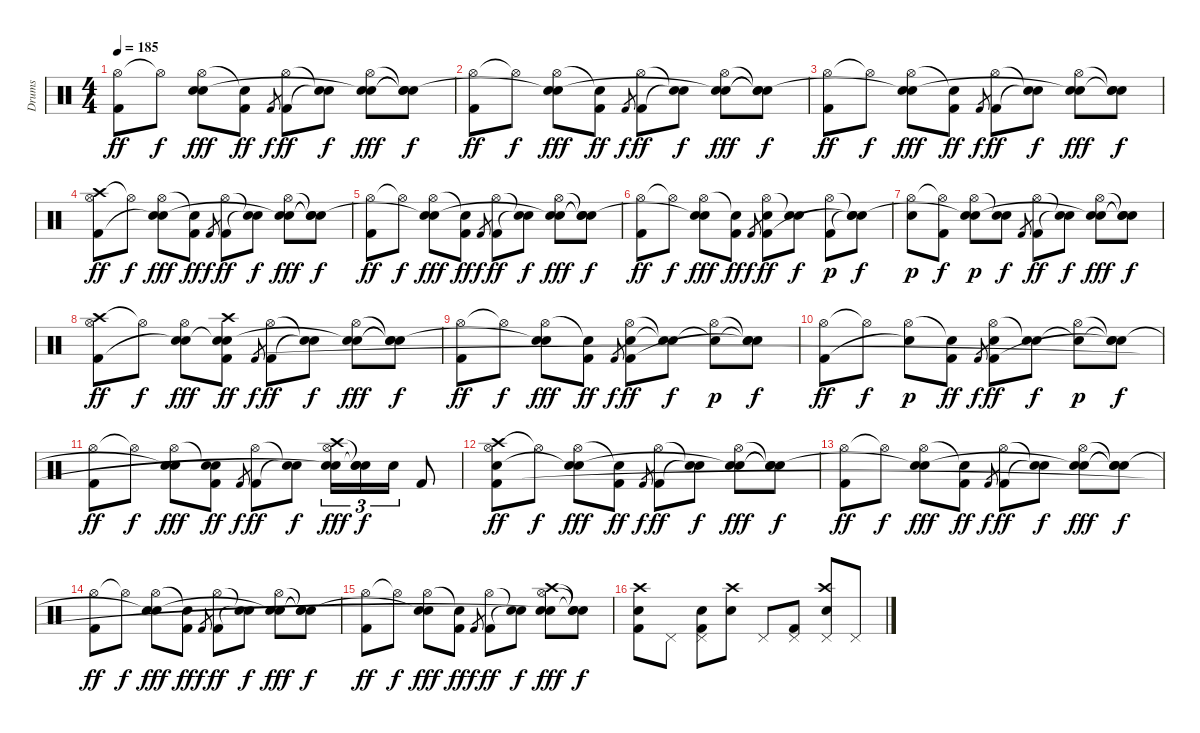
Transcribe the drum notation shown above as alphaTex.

\track ("Drums" "Drums") {instrument percussion}
\staff {score}
\articulation defaults
\ts (4 4)
\tempo 185
\clef neutral
\ks c
("Hi-Hat (open)" "Kick (hit) 2").8{dy ff} "Hi-Hat (open)"{t}.8{dy f} ("Hi-Hat (open)" "Electric Snare (hit)" "Snare (hit)"{t}).8{dy fff} ("Snare (hit)"{t} "Kick (hit) 2").8{dy ff} "Kick (hit) 2".8{gr dy f} ("Hi-Hat (open)" "Kick (hit) 2").8{dy ff} ("Snare (hit)"{t} "Snare (hit)"{t}).8{dy f} ("Hi-Hat (open)" "Electric Snare (hit)" "Snare (hit)"{t}).8{dy fff} ("Snare (hit)"{t} "Snare (hit)"{t} "Snare (hit)"{t}).8{dy f} |
("Hi-Hat (open)" "Kick (hit) 2").8{dy ff} "Hi-Hat (open)"{t}.8{dy f} ("Hi-Hat (open)" "Electric Snare (hit)" "Snare (hit)"{t}).8{dy fff} ("Snare (hit)"{t} "Kick (hit) 2").8{dy ff} "Kick (hit) 2".8{gr dy f} ("Hi-Hat (open)" "Kick (hit) 2").8{dy ff} ("Snare (hit)"{t} "Snare (hit)"{t}).8{dy f} ("Hi-Hat (open)" "Electric Snare (hit)" "Snare (hit)"{t}).8{dy fff} ("Snare (hit)"{t} "Snare (hit)"{t} "Snare (hit)"{t}).8{dy f} |
("Hi-Hat (open)" "Kick (hit) 2").8{dy ff} "Hi-Hat (open)"{t}.8{dy f} ("Hi-Hat (open)" "Electric Snare (hit)" "Snare (hit)"{t}).8{dy fff} ("Snare (hit)"{t} "Kick (hit) 2").8{dy ff} "Kick (hit) 2".8{gr dy f} ("Hi-Hat (open)" "Kick (hit) 2").8{dy ff} ("Snare (hit)"{t} "Snare (hit)"{t}).8{dy f} ("Hi-Hat (open)" "Electric Snare (hit)" "Snare (hit)"{t}).8{dy fff} ("Snare (hit)"{t} "Electric Snare (hit)" "Snare (hit)"{t}).8{dy f} |
("Crash high (hit)" "Hi-Hat (open)" "Kick (hit) 2").8{dy ff} "Hi-Hat (open)"{t}.8{dy f} ("Hi-Hat (open)" "Electric Snare (hit)" "Snare (hit)"{t}).8{dy fff} ("Snare (hit)"{t} "Kick (hit) 2").8{dy ff} "Kick (hit) 2".8{gr dy f} ("Hi-Hat (open)" "Kick (hit) 2").8{dy ff} ("Snare (hit)"{t} "Snare (hit)"{t}).8{dy f} ("Hi-Hat (open)" "Electric Snare (hit)" "Snare (hit)"{t}).8{dy fff} ("Snare (hit)"{t} "Snare (hit)"{t} "Snare (hit)"{t}).8{dy f} |
("Hi-Hat (open)" "Kick (hit) 2").8{dy ff} "Hi-Hat (open)"{t}.8{dy f} ("Hi-Hat (open)" "Electric Snare (hit)" "Snare (hit)"{t}).8{dy fff} ("Snare (hit)"{t} "Kick (hit) 2").8{dy ff} "Kick (hit) 2".8{gr dy f} ("Hi-Hat (open)" "Kick (hit) 2").8{dy ff} ("Snare (hit)"{t} "Snare (hit)"{t}).8{dy f} ("Hi-Hat (open)" "Electric Snare (hit)" "Snare (hit)"{t}).8{dy fff} ("Snare (hit)"{t} "Snare (hit)"{t} "Snare (hit)"{t}).8{dy f} |
("Hi-Hat (open)" "Kick (hit) 2").8{dy ff} "Hi-Hat (open)"{t}.8{dy f} ("Hi-Hat (open)" "Electric Snare (hit)" "Snare (hit)"{t}).8{dy fff} ("Snare (hit)"{t} "Kick (hit) 2").8{dy ff} "Kick (hit) 2".8{gr dy f} ("Hi-Hat (open)" "Electric Snare (hit)" "Kick (hit) 2").8{dy ff} ("Snare (hit)"{t} "Electric Snare (hit)").8{dy f} ("Hi-Hat (open)" "Kick (hit) 2").8{dy p} ("Snare (hit)"{t} "Snare (hit)"{t} "Snare (hit)"{t}).8{dy f} |
("Hi-Hat (open)" "Electric Snare (hit)").8{dy p} ("Hi-Hat (open)"{t} "Kick (hit) 2").8{dy f} ("Hi-Hat (open)" "Electric Snare (hit)" "Snare (hit)"{t}).8{dy p} ("Snare (hit)"{t} "Electric Snare (hit)").8{dy f} "Kick (hit) 2".8{gr} ("Hi-Hat (open)" "Kick (hit) 2").8{dy ff} ("Snare (hit)"{t} "Snare (hit)"{t}).8{dy f} ("Hi-Hat (open)" "Electric Snare (hit)" "Snare (hit)"{t}).8{dy fff} ("Snare (hit)"{t} "Snare (hit)"{t} "Snare (hit)"{t}).8{dy f} |
("Crash high (hit)" "Hi-Hat (open)" "Kick (hit) 2").8{dy ff} "Hi-Hat (open)"{t}.8{dy f} ("Hi-Hat (open)" "Electric Snare (hit)" "Snare (hit)"{t}).8{dy fff} ("Crash high (hit)" "Snare (hit)"{t} "Electric Snare (hit)" "Kick (hit) 2").8{dy ff} "Kick (hit) 2".8{gr dy f} ("Hi-Hat (open)" "Kick (hit) 2").8{dy ff} ("Snare (hit)"{t} "Snare (hit)"{t}).8{dy f} ("Hi-Hat (open)" "Electric Snare (hit)" "Snare (hit)"{t}).8{dy fff} ("Snare (hit)"{t} "Snare (hit)"{t} "Snare (hit)"{t}).8{dy f} |
("Hi-Hat (open)" "Kick (hit) 2").8{dy ff} "Hi-Hat (open)"{t}.8{dy f} ("Hi-Hat (open)" "Electric Snare (hit)" "Snare (hit)"{t}).8{dy fff} ("Snare (hit)"{t} "Kick (hit) 2").8{dy ff} "Kick (hit) 2".8{gr dy f} ("Hi-Hat (open)" "Electric Snare (hit)" "Kick (hit) 2").8{dy ff} ("Snare (hit)"{t} "Snare (hit)"{t}).8{dy f} ("Hi-Hat (open)" "Snare (hit)"{t}).8{dy p} ("Snare (hit)"{t} "Snare (hit)"{t} "Snare (hit)"{t}).8{dy f} |
("Hi-Hat (open)" "Kick (hit) 2").8{dy ff} "Hi-Hat (open)"{t}.8{dy f} ("Hi-Hat (open)" "Snare (hit)"{t}).8{dy p} ("Snare (hit)"{t} "Kick (hit) 2").8{dy ff} "Kick (hit) 2".8{gr dy f} ("Hi-Hat (open)" "Electric Snare (hit)" "Kick (hit) 2").8{dy ff} ("Snare (hit)"{t} "Electric Snare (hit)").8{dy f} ("Hi-Hat (open)" "Snare (hit)"{t}).8{dy p} ("Snare (hit)"{t} "Snare (hit)"{t} "Snare (hit)"{t}).8{dy f} |
("Hi-Hat (open)" "Kick (hit) 2").8{dy ff} "Hi-Hat (open)"{t}.8{dy f} ("Hi-Hat (open)" "Electric Snare (hit)" "Snare (hit)"{t}).8{dy fff} ("Snare (hit)"{t} "Electric Snare (hit)" "Kick (hit) 2").8{dy ff} "Kick (hit) 2".8{gr dy f} ("Hi-Hat (open)" "Kick (hit) 2").8{dy ff} ("Snare (hit)"{t} "Snare (hit)"{t}).8{dy f} ("Crash high (hit)" "Hi-Hat (open)" "Electric Snare (hit)" "Snare (hit)"{t}).16{tu (3 2) dy fff} ("Snare (hit)"{t} "Electric Snare (hit)" "Snare (hit)"{t}).16{tu (3 2) dy f} "Electric Snare (hit)".16{tu (3 2)} "Kick (hit) 2".8 |
("Crash high (hit)" "Hi-Hat (open)" "Electric Snare (hit)" "Kick (hit) 2").8{dy ff} "Hi-Hat (open)"{t}.8{dy f} ("Hi-Hat (open)" "Electric Snare (hit)" "Snare (hit)"{t}).8{dy fff} ("Snare (hit)"{t} "Kick (hit) 2").8{dy ff} "Kick (hit) 2".8{gr dy f} ("Hi-Hat (open)" "Kick (hit) 2").8{dy ff} ("Snare (hit)"{t} "Snare (hit)"{t}).8{dy f} ("Hi-Hat (open)" "Electric Snare (hit)" "Snare (hit)"{t}).8{dy fff} ("Snare (hit)"{t} "Snare (hit)"{t} "Snare (hit)"{t}).8{dy f} |
("Hi-Hat (open)" "Kick (hit) 2").8{dy ff} "Hi-Hat (open)"{t}.8{dy f} ("Hi-Hat (open)" "Electric Snare (hit)" "Snare (hit)"{t}).8{dy fff} ("Snare (hit)"{t} "Kick (hit) 2").8{dy ff} "Kick (hit) 2".8{gr dy f} ("Hi-Hat (open)" "Kick (hit) 2").8{dy ff} ("Snare (hit)"{t} "Snare (hit)"{t}).8{dy f} ("Hi-Hat (open)" "Electric Snare (hit)" "Snare (hit)"{t}).8{dy fff} ("Snare (hit)"{t} "Snare (hit)"{t} "Snare (hit)"{t}).8{dy f} |
("Hi-Hat (open)" "Kick (hit) 2").8{dy ff} "Hi-Hat (open)"{t}.8{dy f} ("Hi-Hat (open)" "Electric Snare (hit)" "Snare (hit)"{t}).8{dy fff} ("Snare (hit)"{t} "Kick (hit) 2").8{dy ff} "Kick (hit) 2".8{gr dy f} ("Hi-Hat (open)" "Kick (hit) 2").8{dy ff} ("Snare (hit)"{t} "Snare (hit)"{t}).8{dy f} ("Hi-Hat (open)" "Electric Snare (hit)" "Snare (hit)"{t}).8{dy fff} ("Snare (hit)"{t} "Snare (hit)"{t} "Snare (hit)"{t}).8{dy f} |
("Hi-Hat (open)" "Kick (hit) 2").8{dy ff} "Hi-Hat (open)"{t}.8{dy f} ("Hi-Hat (open)" "Electric Snare (hit)" "Snare (hit)"{t}).8{dy fff} ("Snare (hit)"{t} "Kick (hit) 2").8{dy ff} "Kick (hit) 2".8{gr dy f} ("Hi-Hat (open)" "Kick (hit) 2").8{dy ff} ("Snare (hit)"{t} "Snare (hit)"{t}).8{dy f} ("Crash high (hit)" "Hi-Hat (open)" "Electric Snare (hit)" "Snare (hit)"{t}).8{dy fff} ("Snare (hit)"{t} "Snare (hit)"{t} "Snare (hit)"{t}).8{dy f} |
("Crash high (hit)" "Electric Snare (hit)" "Kick (hit) 2").8 "Pedal Hi-Hat (hit)".8 ("Pedal Hi-Hat (hit)" "Electric Snare (hit)" "Kick (hit) 2").8 ("Crash high (hit)" "Electric Snare (hit)").8 "Pedal Hi-Hat (hit)".8 ("Pedal Hi-Hat (hit)" "Kick (hit) 2").8 ("Crash high (hit)" "Pedal Hi-Hat (hit)" "Electric Snare (hit)").8 "Pedal Hi-Hat (hit)".8
